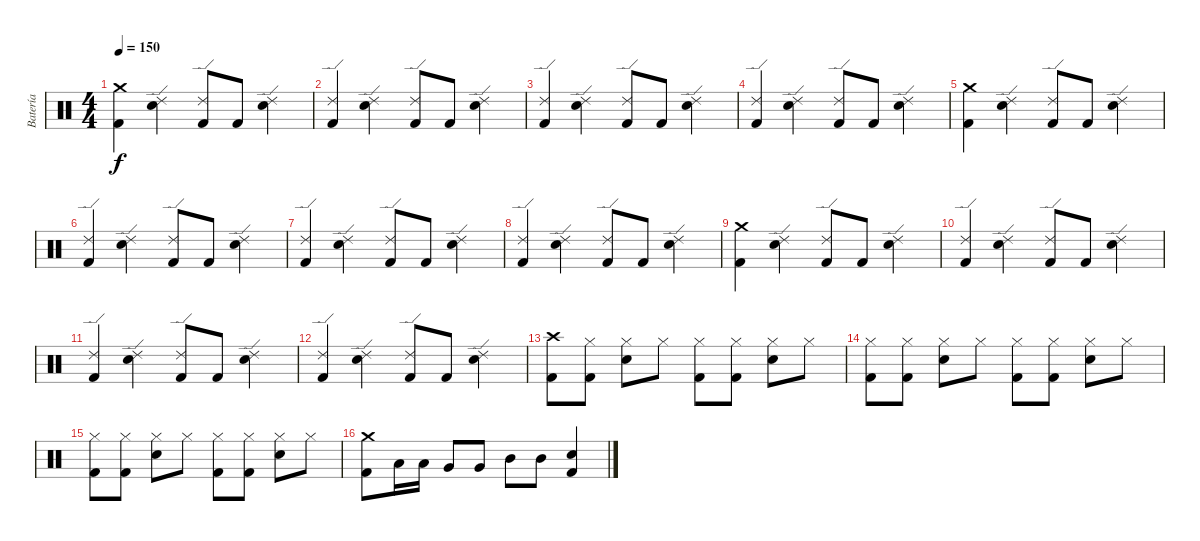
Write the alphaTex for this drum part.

\track ("Batería" "Batería") {instrument percussion}
\staff {score}
\articulation defaults
\ts (4 4)
\tempo 150
\clef neutral
\ks c
("Crash medium (hit)" "Kick (hit) 2").4{dy f} ("Ride (edge) 2" "Electric Snare (hit)").4 ("Ride (edge) 2" "Kick (hit) 2").8 "Kick (hit) 2".8 ("Ride (edge) 2" "Electric Snare (hit)").4 |
("Ride (edge) 2" "Kick (hit) 2").4 ("Ride (edge) 2" "Electric Snare (hit)").4 ("Ride (edge) 2" "Kick (hit) 2").8 "Kick (hit) 2".8 ("Ride (edge) 2" "Electric Snare (hit)").4 |
("Ride (edge) 2" "Kick (hit) 2").4 ("Ride (edge) 2" "Electric Snare (hit)").4 ("Ride (edge) 2" "Kick (hit) 2").8 "Kick (hit) 2".8 ("Ride (edge) 2" "Electric Snare (hit)").4 |
("Ride (edge) 2" "Kick (hit) 2").4 ("Ride (edge) 2" "Electric Snare (hit)").4 ("Ride (edge) 2" "Kick (hit) 2").8 "Kick (hit) 2".8 ("Ride (edge) 2" "Electric Snare (hit)").4 |
("Crash medium (hit)" "Kick (hit) 2").4 ("Ride (edge) 2" "Electric Snare (hit)").4 ("Ride (edge) 2" "Kick (hit) 2").8 "Kick (hit) 2".8 ("Ride (edge) 2" "Electric Snare (hit)").4 |
("Ride (edge) 2" "Kick (hit) 2").4 ("Ride (edge) 2" "Electric Snare (hit)").4 ("Ride (edge) 2" "Kick (hit) 2").8 "Kick (hit) 2".8 ("Ride (edge) 2" "Electric Snare (hit)").4 |
("Ride (edge) 2" "Kick (hit) 2").4 ("Ride (edge) 2" "Electric Snare (hit)").4 ("Ride (edge) 2" "Kick (hit) 2").8 "Kick (hit) 2".8 ("Ride (edge) 2" "Electric Snare (hit)").4 |
("Ride (edge) 2" "Kick (hit) 2").4 ("Ride (edge) 2" "Electric Snare (hit)").4 ("Ride (edge) 2" "Kick (hit) 2").8 "Kick (hit) 2".8 ("Ride (edge) 2" "Electric Snare (hit)").4 |
("Crash medium (hit)" "Kick (hit) 2").4 ("Ride (edge) 2" "Electric Snare (hit)").4 ("Ride (edge) 2" "Kick (hit) 2").8 "Kick (hit) 2".8 ("Ride (edge) 2" "Electric Snare (hit)").4 |
("Ride (edge) 2" "Kick (hit) 2").4 ("Ride (edge) 2" "Electric Snare (hit)").4 ("Ride (edge) 2" "Kick (hit) 2").8 "Kick (hit) 2".8 ("Ride (edge) 2" "Electric Snare (hit)").4 |
("Ride (edge) 2" "Kick (hit) 2").4 ("Ride (edge) 2" "Electric Snare (hit)").4 ("Ride (edge) 2" "Kick (hit) 2").8 "Kick (hit) 2".8 ("Ride (edge) 2" "Electric Snare (hit)").4 |
("Ride (edge) 2" "Kick (hit) 2").4 ("Ride (edge) 2" "Electric Snare (hit)").4 ("Ride (edge) 2" "Kick (hit) 2").8 "Kick (hit) 2".8 ("Ride (edge) 2" "Electric Snare (hit)").4 |
("Crash high (hit)" "Kick (hit) 2").8 ("Hi-Hat (closed)" "Kick (hit) 2").8 ("Hi-Hat (closed)" "Electric Snare (hit)").8 "Hi-Hat (closed)".8 ("Hi-Hat (closed)" "Kick (hit) 2").8 ("Hi-Hat (closed)" "Kick (hit) 2").8 ("Hi-Hat (closed)" "Electric Snare (hit)").8 "Hi-Hat (closed)".8 |
("Hi-Hat (closed)" "Kick (hit) 2").8 ("Hi-Hat (closed)" "Kick (hit) 2").8 ("Hi-Hat (closed)" "Electric Snare (hit)").8 "Hi-Hat (closed)".8 ("Hi-Hat (closed)" "Kick (hit) 2").8 ("Hi-Hat (closed)" "Kick (hit) 2").8 ("Hi-Hat (closed)" "Electric Snare (hit)").8 "Hi-Hat (closed)".8 |
("Hi-Hat (closed)" "Kick (hit) 2").8 ("Hi-Hat (closed)" "Kick (hit) 2").8 ("Hi-Hat (closed)" "Electric Snare (hit)").8 "Hi-Hat (closed)".8 ("Hi-Hat (closed)" "Kick (hit) 2").8 ("Hi-Hat (closed)" "Kick (hit) 2").8 ("Hi-Hat (closed)" "Electric Snare (hit)").8 "Hi-Hat (closed)".8 |
("Crash medium (hit)" "Kick (hit) 2").8 "Low Tom (hit)".16 "Low Tom (hit)".16 "Very Low Tom (hit)".8 "Very Low Tom (hit)".8 "Mid Tom (hit)".8 "Mid Tom (hit)".8 ("Electric Snare (hit)" "Kick (hit) 2").4
